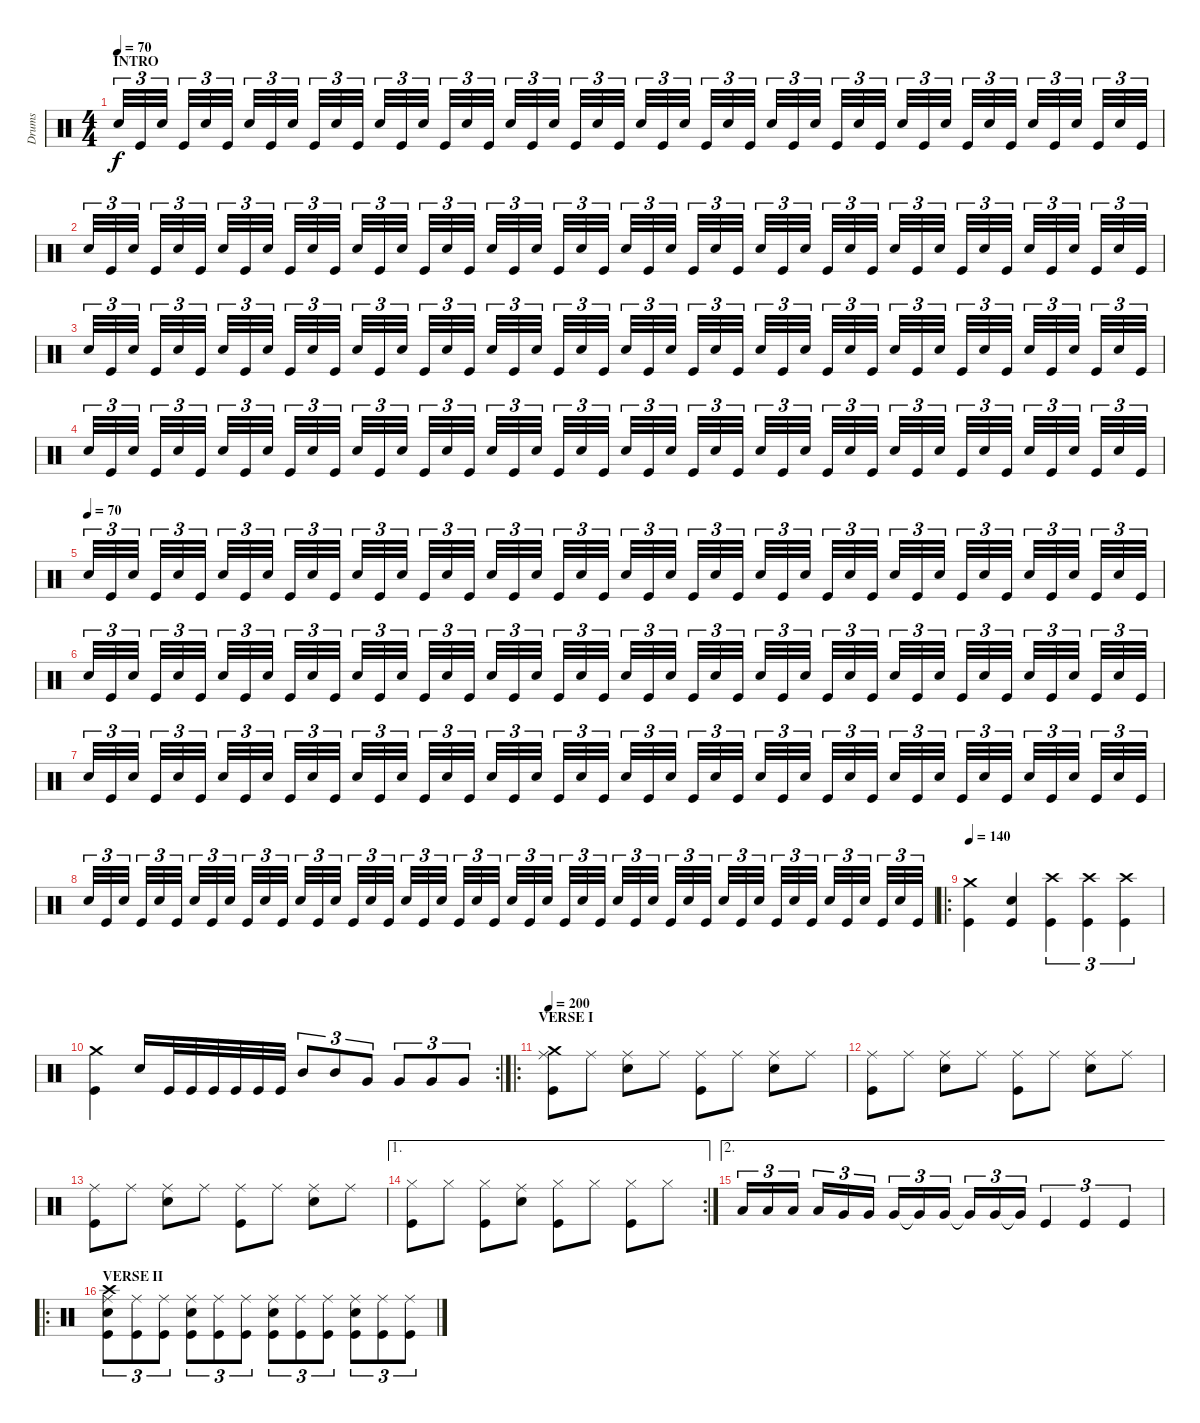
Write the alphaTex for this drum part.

\track ("Drums" "Drums") {instrument percussion}
\staff {score}
\articulation defaults
\ts (4 4)
\section ("" "INTRO")
\tempo 70
\clef neutral
\ks c "Snare (hit) 2".32{tu (3 2) dy f} "Kick (hit)".32{tu (3 2)} "Snare (hit) 2".32{tu (3 2)} "Kick (hit)".32{tu (3 2)} "Snare (hit) 2".32{tu (3 2)} "Kick (hit)".32{tu (3 2)} "Snare (hit) 2".32{tu (3 2)} "Kick (hit)".32{tu (3 2)} "Snare (hit) 2".32{tu (3 2)} "Kick (hit)".32{tu (3 2)} "Snare (hit) 2".32{tu (3 2)} "Kick (hit)".32{tu (3 2)} "Snare (hit) 2".32{tu (3 2)} "Kick (hit)".32{tu (3 2)} "Snare (hit) 2".32{tu (3 2)} "Kick (hit)".32{tu (3 2)} "Snare (hit) 2".32{tu (3 2)} "Kick (hit)".32{tu (3 2)} "Snare (hit) 2".32{tu (3 2)} "Kick (hit)".32{tu (3 2)} "Snare (hit) 2".32{tu (3 2)} "Kick (hit)".32{tu (3 2)} "Snare (hit) 2".32{tu (3 2)} "Kick (hit)".32{tu (3 2)} "Snare (hit) 2".32{tu (3 2)} "Kick (hit)".32{tu (3 2)} "Snare (hit) 2".32{tu (3 2)} "Kick (hit)".32{tu (3 2)} "Snare (hit) 2".32{tu (3 2)} "Kick (hit)".32{tu (3 2)} "Snare (hit) 2".32{tu (3 2)} "Kick (hit)".32{tu (3 2)} "Snare (hit) 2".32{tu (3 2)} "Kick (hit)".32{tu (3 2)} "Snare (hit) 2".32{tu (3 2)} "Kick (hit)".32{tu (3 2)} "Snare (hit) 2".32{tu (3 2)} "Kick (hit)".32{tu (3 2)} "Snare (hit) 2".32{tu (3 2)} "Kick (hit)".32{tu (3 2)} "Snare (hit) 2".32{tu (3 2)} "Kick (hit)".32{tu (3 2)} "Snare (hit) 2".32{tu (3 2)} "Kick (hit)".32{tu (3 2)} "Snare (hit) 2".32{tu (3 2)} "Kick (hit)".32{tu (3 2)} "Snare (hit) 2".32{tu (3 2)} "Kick (hit)".32{tu (3 2)}
|
"Snare (hit) 2".32{tu (3 2)} "Kick (hit)".32{tu (3 2)} "Snare (hit) 2".32{tu (3 2)} "Kick (hit)".32{tu (3 2)} "Snare (hit) 2".32{tu (3 2)} "Kick (hit)".32{tu (3 2)} "Snare (hit) 2".32{tu (3 2)} "Kick (hit)".32{tu (3 2)} "Snare (hit) 2".32{tu (3 2)} "Kick (hit)".32{tu (3 2)} "Snare (hit) 2".32{tu (3 2)} "Kick (hit)".32{tu (3 2)} "Snare (hit) 2".32{tu (3 2)} "Kick (hit)".32{tu (3 2)} "Snare (hit) 2".32{tu (3 2)} "Kick (hit)".32{tu (3 2)} "Snare (hit) 2".32{tu (3 2)} "Kick (hit)".32{tu (3 2)} "Snare (hit) 2".32{tu (3 2)} "Kick (hit)".32{tu (3 2)} "Snare (hit) 2".32{tu (3 2)} "Kick (hit)".32{tu (3 2)} "Snare (hit) 2".32{tu (3 2)} "Kick (hit)".32{tu (3 2)} "Snare (hit) 2".32{tu (3 2)} "Kick (hit)".32{tu (3 2)} "Snare (hit) 2".32{tu (3 2)} "Kick (hit)".32{tu (3 2)} "Snare (hit) 2".32{tu (3 2)} "Kick (hit)".32{tu (3 2)} "Snare (hit) 2".32{tu (3 2)} "Kick (hit)".32{tu (3 2)} "Snare (hit) 2".32{tu (3 2)} "Kick (hit)".32{tu (3 2)} "Snare (hit) 2".32{tu (3 2)} "Kick (hit)".32{tu (3 2)} "Snare (hit) 2".32{tu (3 2)} "Kick (hit)".32{tu (3 2)} "Snare (hit) 2".32{tu (3 2)} "Kick (hit)".32{tu (3 2)} "Snare (hit) 2".32{tu (3 2)} "Kick (hit)".32{tu (3 2)} "Snare (hit) 2".32{tu (3 2)} "Kick (hit)".32{tu (3 2)} "Snare (hit) 2".32{tu (3 2)} "Kick (hit)".32{tu (3 2)} "Snare (hit) 2".32{tu (3 2)} "Kick (hit)".32{tu (3 2)} |
"Snare (hit) 2".32{tu (3 2)} "Kick (hit)".32{tu (3 2)} "Snare (hit) 2".32{tu (3 2)} "Kick (hit)".32{tu (3 2)} "Snare (hit) 2".32{tu (3 2)} "Kick (hit)".32{tu (3 2)} "Snare (hit) 2".32{tu (3 2)} "Kick (hit)".32{tu (3 2)} "Snare (hit) 2".32{tu (3 2)} "Kick (hit)".32{tu (3 2)} "Snare (hit) 2".32{tu (3 2)} "Kick (hit)".32{tu (3 2)} "Snare (hit) 2".32{tu (3 2)} "Kick (hit)".32{tu (3 2)} "Snare (hit) 2".32{tu (3 2)} "Kick (hit)".32{tu (3 2)} "Snare (hit) 2".32{tu (3 2)} "Kick (hit)".32{tu (3 2)} "Snare (hit) 2".32{tu (3 2)} "Kick (hit)".32{tu (3 2)} "Snare (hit) 2".32{tu (3 2)} "Kick (hit)".32{tu (3 2)} "Snare (hit) 2".32{tu (3 2)} "Kick (hit)".32{tu (3 2)} "Snare (hit) 2".32{tu (3 2)} "Kick (hit)".32{tu (3 2)} "Snare (hit) 2".32{tu (3 2)} "Kick (hit)".32{tu (3 2)} "Snare (hit) 2".32{tu (3 2)} "Kick (hit)".32{tu (3 2)} "Snare (hit) 2".32{tu (3 2)} "Kick (hit)".32{tu (3 2)} "Snare (hit) 2".32{tu (3 2)} "Kick (hit)".32{tu (3 2)} "Snare (hit) 2".32{tu (3 2)} "Kick (hit)".32{tu (3 2)} "Snare (hit) 2".32{tu (3 2)} "Kick (hit)".32{tu (3 2)} "Snare (hit) 2".32{tu (3 2)} "Kick (hit)".32{tu (3 2)} "Snare (hit) 2".32{tu (3 2)} "Kick (hit)".32{tu (3 2)} "Snare (hit) 2".32{tu (3 2)} "Kick (hit)".32{tu (3 2)} "Snare (hit) 2".32{tu (3 2)} "Kick (hit)".32{tu (3 2)} "Snare (hit) 2".32{tu (3 2)} "Kick (hit)".32{tu (3 2)} |
"Snare (hit) 2".32{tu (3 2)} "Kick (hit)".32{tu (3 2)} "Snare (hit) 2".32{tu (3 2)} "Kick (hit)".32{tu (3 2)} "Snare (hit) 2".32{tu (3 2)} "Kick (hit)".32{tu (3 2)} "Snare (hit) 2".32{tu (3 2)} "Kick (hit)".32{tu (3 2)} "Snare (hit) 2".32{tu (3 2)} "Kick (hit)".32{tu (3 2)} "Snare (hit) 2".32{tu (3 2)} "Kick (hit)".32{tu (3 2)} "Snare (hit) 2".32{tu (3 2)} "Kick (hit)".32{tu (3 2)} "Snare (hit) 2".32{tu (3 2)} "Kick (hit)".32{tu (3 2)} "Snare (hit) 2".32{tu (3 2)} "Kick (hit)".32{tu (3 2)} "Snare (hit) 2".32{tu (3 2)} "Kick (hit)".32{tu (3 2)} "Snare (hit) 2".32{tu (3 2)} "Kick (hit)".32{tu (3 2)} "Snare (hit) 2".32{tu (3 2)} "Kick (hit)".32{tu (3 2)} "Snare (hit) 2".32{tu (3 2)} "Kick (hit)".32{tu (3 2)} "Snare (hit) 2".32{tu (3 2)} "Kick (hit)".32{tu (3 2)} "Snare (hit) 2".32{tu (3 2)} "Kick (hit)".32{tu (3 2)} "Snare (hit) 2".32{tu (3 2)} "Kick (hit)".32{tu (3 2)} "Snare (hit) 2".32{tu (3 2)} "Kick (hit)".32{tu (3 2)} "Snare (hit) 2".32{tu (3 2)} "Kick (hit)".32{tu (3 2)} "Snare (hit) 2".32{tu (3 2)} "Kick (hit)".32{tu (3 2)} "Snare (hit) 2".32{tu (3 2)} "Kick (hit)".32{tu (3 2)} "Snare (hit) 2".32{tu (3 2)} "Kick (hit)".32{tu (3 2)} "Snare (hit) 2".32{tu (3 2)} "Kick (hit)".32{tu (3 2)} "Snare (hit) 2".32{tu (3 2)} "Kick (hit)".32{tu (3 2)} "Snare (hit) 2".32{tu (3 2)} "Kick (hit)".32{tu (3 2)} |
\tempo (70)
"Snare (hit) 2".32{tu (3 2)} "Kick (hit)".32{tu (3 2)} "Snare (hit) 2".32{tu (3 2)} "Kick (hit)".32{tu (3 2)} "Snare (hit) 2".32{tu (3 2)} "Kick (hit)".32{tu (3 2)} "Snare (hit) 2".32{tu (3 2)} "Kick (hit)".32{tu (3 2)} "Snare (hit) 2".32{tu (3 2)} "Kick (hit)".32{tu (3 2)} "Snare (hit) 2".32{tu (3 2)} "Kick (hit)".32{tu (3 2)} "Snare (hit) 2".32{tu (3 2)} "Kick (hit)".32{tu (3 2)} "Snare (hit) 2".32{tu (3 2)} "Kick (hit)".32{tu (3 2)} "Snare (hit) 2".32{tu (3 2)} "Kick (hit)".32{tu (3 2)} "Snare (hit) 2".32{tu (3 2)} "Kick (hit)".32{tu (3 2)} "Snare (hit) 2".32{tu (3 2)} "Kick (hit)".32{tu (3 2)} "Snare (hit) 2".32{tu (3 2)} "Kick (hit)".32{tu (3 2)} "Snare (hit) 2".32{tu (3 2)} "Kick (hit)".32{tu (3 2)} "Snare (hit) 2".32{tu (3 2)} "Kick (hit)".32{tu (3 2)} "Snare (hit) 2".32{tu (3 2)} "Kick (hit)".32{tu (3 2)} "Snare (hit) 2".32{tu (3 2)} "Kick (hit)".32{tu (3 2)} "Snare (hit) 2".32{tu (3 2)} "Kick (hit)".32{tu (3 2)} "Snare (hit) 2".32{tu (3 2)} "Kick (hit)".32{tu (3 2)} "Snare (hit) 2".32{tu (3 2)} "Kick (hit)".32{tu (3 2)} "Snare (hit) 2".32{tu (3 2)} "Kick (hit)".32{tu (3 2)} "Snare (hit) 2".32{tu (3 2)} "Kick (hit)".32{tu (3 2)} "Snare (hit) 2".32{tu (3 2)} "Kick (hit)".32{tu (3 2)} "Snare (hit) 2".32{tu (3 2)} "Kick (hit)".32{tu (3 2)} "Snare (hit) 2".32{tu (3 2)} "Kick (hit)".32{tu (3 2)} |
"Snare (hit) 2".32{tu (3 2)} "Kick (hit)".32{tu (3 2)} "Snare (hit) 2".32{tu (3 2)} "Kick (hit)".32{tu (3 2)} "Snare (hit) 2".32{tu (3 2)} "Kick (hit)".32{tu (3 2)} "Snare (hit) 2".32{tu (3 2)} "Kick (hit)".32{tu (3 2)} "Snare (hit) 2".32{tu (3 2)} "Kick (hit)".32{tu (3 2)} "Snare (hit) 2".32{tu (3 2)} "Kick (hit)".32{tu (3 2)} "Snare (hit) 2".32{tu (3 2)} "Kick (hit)".32{tu (3 2)} "Snare (hit) 2".32{tu (3 2)} "Kick (hit)".32{tu (3 2)} "Snare (hit) 2".32{tu (3 2)} "Kick (hit)".32{tu (3 2)} "Snare (hit) 2".32{tu (3 2)} "Kick (hit)".32{tu (3 2)} "Snare (hit) 2".32{tu (3 2)} "Kick (hit)".32{tu (3 2)} "Snare (hit) 2".32{tu (3 2)} "Kick (hit)".32{tu (3 2)} "Snare (hit) 2".32{tu (3 2)} "Kick (hit)".32{tu (3 2)} "Snare (hit) 2".32{tu (3 2)} "Kick (hit)".32{tu (3 2)} "Snare (hit) 2".32{tu (3 2)} "Kick (hit)".32{tu (3 2)} "Snare (hit) 2".32{tu (3 2)} "Kick (hit)".32{tu (3 2)} "Snare (hit) 2".32{tu (3 2)} "Kick (hit)".32{tu (3 2)} "Snare (hit) 2".32{tu (3 2)} "Kick (hit)".32{tu (3 2)} "Snare (hit) 2".32{tu (3 2)} "Kick (hit)".32{tu (3 2)} "Snare (hit) 2".32{tu (3 2)} "Kick (hit)".32{tu (3 2)} "Snare (hit) 2".32{tu (3 2)} "Kick (hit)".32{tu (3 2)} "Snare (hit) 2".32{tu (3 2)} "Kick (hit)".32{tu (3 2)} "Snare (hit) 2".32{tu (3 2)} "Kick (hit)".32{tu (3 2)} "Snare (hit) 2".32{tu (3 2)} "Kick (hit)".32{tu (3 2)} |
"Snare (hit) 2".32{tu (3 2)} "Kick (hit)".32{tu (3 2)} "Snare (hit) 2".32{tu (3 2)} "Kick (hit)".32{tu (3 2)} "Snare (hit) 2".32{tu (3 2)} "Kick (hit)".32{tu (3 2)} "Snare (hit) 2".32{tu (3 2)} "Kick (hit)".32{tu (3 2)} "Snare (hit) 2".32{tu (3 2)} "Kick (hit)".32{tu (3 2)} "Snare (hit) 2".32{tu (3 2)} "Kick (hit)".32{tu (3 2)} "Snare (hit) 2".32{tu (3 2)} "Kick (hit)".32{tu (3 2)} "Snare (hit) 2".32{tu (3 2)} "Kick (hit)".32{tu (3 2)} "Snare (hit) 2".32{tu (3 2)} "Kick (hit)".32{tu (3 2)} "Snare (hit) 2".32{tu (3 2)} "Kick (hit)".32{tu (3 2)} "Snare (hit) 2".32{tu (3 2)} "Kick (hit)".32{tu (3 2)} "Snare (hit) 2".32{tu (3 2)} "Kick (hit)".32{tu (3 2)} "Snare (hit) 2".32{tu (3 2)} "Kick (hit)".32{tu (3 2)} "Snare (hit) 2".32{tu (3 2)} "Kick (hit)".32{tu (3 2)} "Snare (hit) 2".32{tu (3 2)} "Kick (hit)".32{tu (3 2)} "Snare (hit) 2".32{tu (3 2)} "Kick (hit)".32{tu (3 2)} "Snare (hit) 2".32{tu (3 2)} "Kick (hit)".32{tu (3 2)} "Snare (hit) 2".32{tu (3 2)} "Kick (hit)".32{tu (3 2)} "Snare (hit) 2".32{tu (3 2)} "Kick (hit)".32{tu (3 2)} "Snare (hit) 2".32{tu (3 2)} "Kick (hit)".32{tu (3 2)} "Snare (hit) 2".32{tu (3 2)} "Kick (hit)".32{tu (3 2)} "Snare (hit) 2".32{tu (3 2)} "Kick (hit)".32{tu (3 2)} "Snare (hit) 2".32{tu (3 2)} "Kick (hit)".32{tu (3 2)} "Snare (hit) 2".32{tu (3 2)} "Kick (hit)".32{tu (3 2)} |
"Snare (hit) 2".32{tu (3 2)} "Kick (hit)".32{tu (3 2)} "Snare (hit) 2".32{tu (3 2)} "Kick (hit)".32{tu (3 2)} "Snare (hit) 2".32{tu (3 2)} "Kick (hit)".32{tu (3 2)} "Snare (hit) 2".32{tu (3 2)} "Kick (hit)".32{tu (3 2)} "Snare (hit) 2".32{tu (3 2)} "Kick (hit)".32{tu (3 2)} "Snare (hit) 2".32{tu (3 2)} "Kick (hit)".32{tu (3 2)} "Snare (hit) 2".32{tu (3 2)} "Kick (hit)".32{tu (3 2)} "Snare (hit) 2".32{tu (3 2)} "Kick (hit)".32{tu (3 2)} "Snare (hit) 2".32{tu (3 2)} "Kick (hit)".32{tu (3 2)} "Snare (hit) 2".32{tu (3 2)} "Kick (hit)".32{tu (3 2)} "Snare (hit) 2".32{tu (3 2)} "Kick (hit)".32{tu (3 2)} "Snare (hit) 2".32{tu (3 2)} "Kick (hit)".32{tu (3 2)} "Snare (hit) 2".32{tu (3 2)} "Kick (hit)".32{tu (3 2)} "Snare (hit) 2".32{tu (3 2)} "Kick (hit)".32{tu (3 2)} "Snare (hit) 2".32{tu (3 2)} "Kick (hit)".32{tu (3 2)} "Snare (hit) 2".32{tu (3 2)} "Kick (hit)".32{tu (3 2)} "Snare (hit) 2".32{tu (3 2)} "Kick (hit)".32{tu (3 2)} "Snare (hit) 2".32{tu (3 2)} "Kick (hit)".32{tu (3 2)} "Snare (hit) 2".32{tu (3 2)} "Kick (hit)".32{tu (3 2)} "Snare (hit) 2".32{tu (3 2)} "Kick (hit)".32{tu (3 2)} "Snare (hit) 2".32{tu (3 2)} "Kick (hit)".32{tu (3 2)} "Snare (hit) 2".32{tu (3 2)} "Kick (hit)".32{tu (3 2)} "Snare (hit) 2".32{tu (3 2)} "Kick (hit)".32{tu (3 2)} "Snare (hit) 2".32{tu (3 2)} "Kick (hit)".32{tu (3 2)} |
\ro
\tempo 140
("Crash medium (hit)" "Kick (hit)").4 ("Snare (hit) 2" "Kick (hit)").4 ("Crash high (hit)" "Kick (hit)").4{tu (3 2)} ("Crash high (hit)" "Kick (hit)").4{tu (3 2)} ("Crash high (hit)" "Kick (hit)").4{tu (3 2)} |
\rc 2
("Crash medium (hit)" "Kick (hit)").4 "Snare (hit) 2".16 "Kick (hit)".32 "Kick (hit)".32 "Kick (hit)".32 "Kick (hit)".32 "Kick (hit)".32 "Kick (hit)".32 "Mid Tom (hit)".8{tu (3 2)} "Mid Tom (hit)".8{tu (3 2)} "Very Low Tom (hit)".8{tu (3 2)} "Very Low Tom (hit)".8{tu (3 2)} "Very Low Tom (hit)".8{tu (3 2)} "Very Low Tom (hit)".8{tu (3 2)} |
\ro
\section ("" "VERSE I")
\tempo 200
("Crash medium (hit)" "Ride (middle)" "Kick (hit)").8 "Ride (middle)".8 ("Ride (middle)" "Snare (hit) 2").8 "Ride (middle)".8 ("Ride (middle)" "Kick (hit)").8 "Ride (middle)".8 ("Ride (middle)" "Snare (hit) 2").8 "Ride (middle)".8 |
("Ride (middle)" "Kick (hit)").8 "Ride (middle)".8 ("Ride (middle)" "Snare (hit) 2").8 "Ride (middle)".8 ("Ride (middle)" "Kick (hit)").8 "Ride (middle)".8 ("Ride (middle)" "Snare (hit) 2").8 "Ride (middle)".8 |
("Ride (middle)" "Kick (hit)").8 "Ride (middle)".8 ("Ride (middle)" "Snare (hit) 2").8 "Ride (middle)".8 ("Ride (middle)" "Kick (hit)").8 "Ride (middle)".8 ("Ride (middle)" "Snare (hit) 2").8 "Ride (middle)".8 |
\ae 1
\rc 2
("Hi-Hat (closed)" "Kick (hit)").8 "Hi-Hat (closed)".8 ("Hi-Hat (closed)" "Kick (hit)").8 ("Snare (hit) 2" "Ride (middle)").8 ("Hi-Hat (closed)" "Kick (hit)").8 "Hi-Hat (closed)".8 ("Hi-Hat (closed)" "Kick (hit)").8 "Hi-Hat (closed)".8 |
\ae 2 "Low Tom (hit)".16{tu (3 2)} "Low Tom (hit)".16{tu (3 2)} "Low Tom (hit)".16{tu (3 2)} "Low Tom (hit)".16{tu (3 2)} "Very Low Tom (hit)".16{tu (3 2)} "Very Low Tom (hit)".16{tu (3 2)} "Very Low Tom (hit)".16{tu (3 2)} "Very Low Tom (hit)"{t}.16{tu (3 2)} "Very Low Tom (hit)".16{tu (3 2)} "Very Low Tom (hit)"{t}.16{tu (3 2)} "Very Low Tom (hit)".16{tu (3 2)} "Very Low Tom (hit)"{t}.16{tu (3 2)} "Kick (hit)".4{tu (3 2)} "Kick (hit)".4{tu (3 2)} "Kick (hit)".4{tu (3 2)}
|
\ro
\section ("" "VERSE II")
("Snare (hit) 2" "Crash high (hit)" "Ride (middle)" "Kick (hit)").8{tu (3 2)} ("Ride (middle)" "Kick (hit)").8{tu (3 2)} ("Ride (middle)" "Kick (hit)").8{tu (3 2)} ("Snare (hit) 2" "Ride (middle)" "Kick (hit)").8{tu (3 2)} ("Ride (middle)" "Kick (hit)").8{tu (3 2)} ("Ride (middle)" "Kick (hit)").8{tu (3 2)} ("Snare (hit) 2" "Ride (middle)" "Kick (hit)").8{tu (3 2)} ("Ride (middle)" "Kick (hit)").8{tu (3 2)} ("Ride (middle)" "Kick (hit)").8{tu (3 2)} ("Snare (hit) 2" "Ride (middle)" "Kick (hit)").8{tu (3 2)} ("Ride (middle)" "Kick (hit)").8{tu (3 2)} ("Ride (middle)" "Kick (hit)").8{tu (3 2)}
